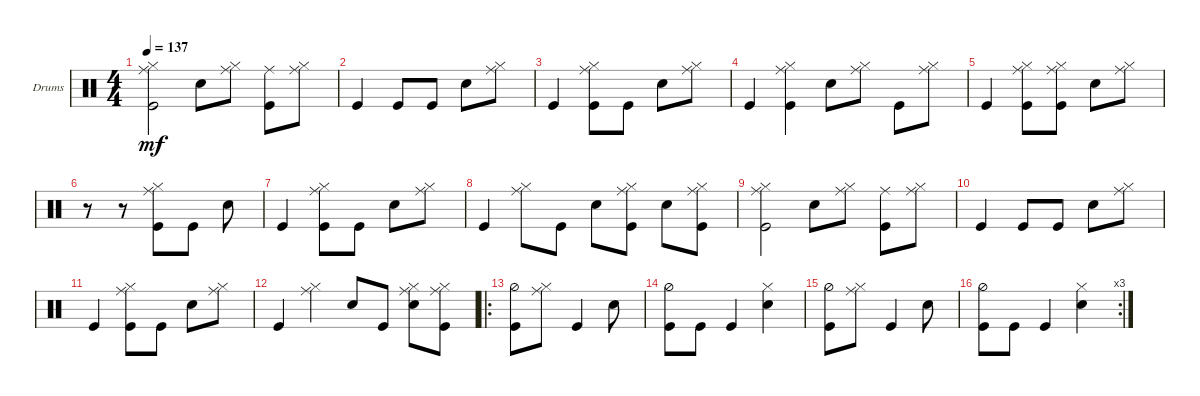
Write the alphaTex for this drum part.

\defaultSystemsLayout 4
\bracketExtendMode groupsimilarinstruments
\firstSystemTrackNameOrientation horizontal
\otherSystemsTrackNameOrientation horizontal
\track ("Drumkit" "Drums") {instrument percussion}
\staff {score}
\articulation defaults
\ts (4 4)
\tempo 137
\clef neutral
\ks c
("Kick (hit)" "Ride (middle)" "Hi-Hat (closed)").2{dy mf} "Snare (hit) 2".8 ("Hi-Hat (closed)" "Ride (middle)").8 ("Kick (hit)" "Ride (middle)").8 ("Hi-Hat (closed)" "Ride (middle)").8 |
"Kick (hit)".4 "Kick (hit)".8 "Kick (hit)".8 "Snare (hit) 2".8 ("Hi-Hat (closed)" "Ride (middle)").8 |
"Kick (hit)".4 ("Kick (hit)" "Ride (middle)" "Hi-Hat (closed)").8 "Kick (hit)".8 "Snare (hit) 2".8 ("Hi-Hat (closed)" "Ride (middle)").8 |
"Kick (hit)".4 ("Kick (hit)" "Ride (middle)" "Hi-Hat (closed)").4 "Snare (hit) 2".8 ("Ride (middle)" "Hi-Hat (closed)").8 "Kick (hit)".8 ("Ride (middle)" "Hi-Hat (closed)").8 |
"Kick (hit)".4 ("Kick (hit)" "Ride (middle)" "Hi-Hat (closed)").8 ("Kick (hit)" "Ride (middle)" "Hi-Hat (closed)").8 "Snare (hit) 2".8 ("Hi-Hat (closed)" "Ride (middle)").8 |
r.8 r.8 ("Ride (middle)" "Hi-Hat (closed)" "Kick (hit)").8 "Kick (hit)".8 "Snare (hit) 2".8 |
"Kick (hit)".4 ("Kick (hit)" "Ride (middle)" "Hi-Hat (closed)").8 "Kick (hit)".8 "Snare (hit) 2".8 ("Ride (middle)" "Hi-Hat (closed)").8 |
"Kick (hit)".4 ("Ride (middle)" "Hi-Hat (closed)").8 "Kick (hit)".8 "Snare (hit) 2".8 ("Ride (middle)" "Hi-Hat (closed)" "Kick (hit)").8 "Snare (hit) 2".8 ("Ride (middle)" "Hi-Hat (closed)" "Kick (hit)").8 |
("Kick (hit)" "Ride (middle)" "Hi-Hat (closed)").2 "Snare (hit) 2".8 ("Hi-Hat (closed)" "Ride (middle)").8 ("Kick (hit)" "Ride (middle)").8 ("Hi-Hat (closed)" "Ride (middle)").8 |
"Kick (hit)".4 "Kick (hit)".8 "Kick (hit)".8 "Snare (hit) 2".8 ("Hi-Hat (closed)" "Ride (middle)").8 |
"Kick (hit)".4 ("Kick (hit)" "Ride (middle)" "Hi-Hat (closed)").8 "Kick (hit)".8 "Snare (hit) 2".8 ("Hi-Hat (closed)" "Ride (middle)").8 |
"Kick (hit)".4 ("Ride (middle)" "Hi-Hat (closed)").4 "Snare (hit) 2".8 "Kick (hit)".8 ("Hi-Hat (closed)" "Ride (middle)" "Snare (hit) 2").8 ("Ride (middle)" "Hi-Hat (closed)" "Kick (hit)").8 |
\ro
("Kick (hit)" "Hi-Hat (half)").8 ("Ride (middle)" "Hi-Hat (closed)").8 "Kick (hit)".4 "Snare (hit) 2".8 |
("Kick (hit)" "Hi-Hat (half)").8 "Kick (hit)".8 "Kick (hit)".4 ("Snare (hit) 2" "Hi-Hat (closed)").4 |
("Kick (hit)" "Hi-Hat (half)").8 ("Ride (middle)" "Hi-Hat (closed)").8 "Kick (hit)".4 "Snare (hit) 2".8 |
\rc 3
("Kick (hit)" "Hi-Hat (half)").8 "Kick (hit)".8 "Kick (hit)".4 ("Snare (hit) 2" "Hi-Hat (closed)").4
